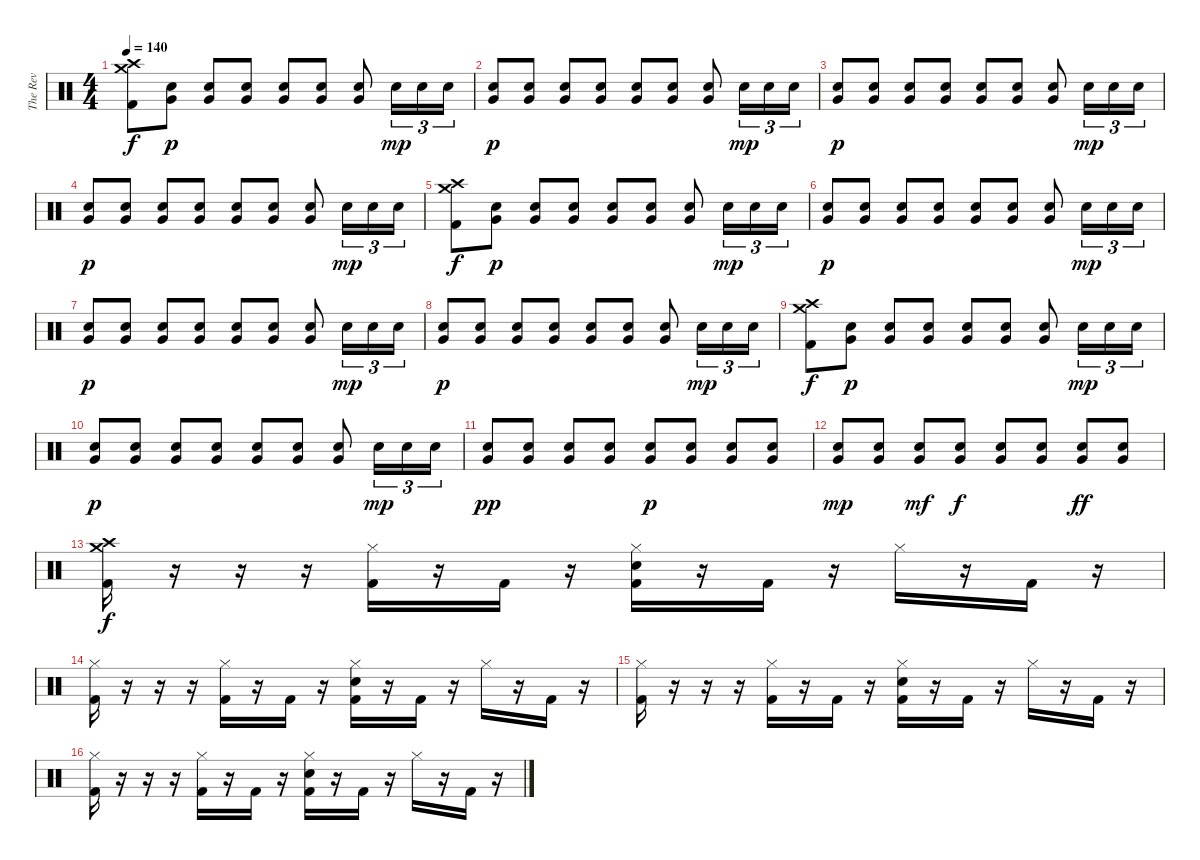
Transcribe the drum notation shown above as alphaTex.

\track ("The Rev" "The Rev") {instrument percussion}
\staff {score}
\articulation defaults
\ts (4 4)
\tempo 140
\clef neutral
\ks c
("Crash medium (hit)" "Crash high (hit)" "Kick (hit) 2").8{dy f} ("Very Low Tom (hit)" "Electric Snare (hit)").8{dy p} ("Very Low Tom (hit)" "Electric Snare (hit)").8 ("Very Low Tom (hit)" "Electric Snare (hit)").8 ("Very Low Tom (hit)" "Electric Snare (hit)").8 ("Very Low Tom (hit)" "Electric Snare (hit)").8 ("Very Low Tom (hit)" "Electric Snare (hit)").8 "Electric Snare (hit)".16{tu (3 2) dy mp} "Electric Snare (hit)".16{tu (3 2)} "Electric Snare (hit)".16{tu (3 2)} |
("Very Low Tom (hit)" "Electric Snare (hit)").8{dy p} ("Very Low Tom (hit)" "Electric Snare (hit)").8 ("Very Low Tom (hit)" "Electric Snare (hit)").8 ("Very Low Tom (hit)" "Electric Snare (hit)").8 ("Very Low Tom (hit)" "Electric Snare (hit)").8 ("Very Low Tom (hit)" "Electric Snare (hit)").8 ("Very Low Tom (hit)" "Electric Snare (hit)").8 "Electric Snare (hit)".16{tu (3 2) dy mp} "Electric Snare (hit)".16{tu (3 2)} "Electric Snare (hit)".16{tu (3 2)} |
("Very Low Tom (hit)" "Electric Snare (hit)").8{dy p} ("Very Low Tom (hit)" "Electric Snare (hit)").8 ("Very Low Tom (hit)" "Electric Snare (hit)").8 ("Very Low Tom (hit)" "Electric Snare (hit)").8 ("Very Low Tom (hit)" "Electric Snare (hit)").8 ("Very Low Tom (hit)" "Electric Snare (hit)").8 ("Very Low Tom (hit)" "Electric Snare (hit)").8 "Electric Snare (hit)".16{tu (3 2) dy mp} "Electric Snare (hit)".16{tu (3 2)} "Electric Snare (hit)".16{tu (3 2)} |
("Very Low Tom (hit)" "Electric Snare (hit)").8{dy p} ("Very Low Tom (hit)" "Electric Snare (hit)").8 ("Very Low Tom (hit)" "Electric Snare (hit)").8 ("Very Low Tom (hit)" "Electric Snare (hit)").8 ("Very Low Tom (hit)" "Electric Snare (hit)").8 ("Very Low Tom (hit)" "Electric Snare (hit)").8 ("Very Low Tom (hit)" "Electric Snare (hit)").8 "Electric Snare (hit)".16{tu (3 2) dy mp} "Electric Snare (hit)".16{tu (3 2)} "Electric Snare (hit)".16{tu (3 2)} |
("Crash medium (hit)" "Crash high (hit)" "Kick (hit) 2").8{dy f} ("Very Low Tom (hit)" "Electric Snare (hit)").8{dy p} ("Very Low Tom (hit)" "Electric Snare (hit)").8 ("Very Low Tom (hit)" "Electric Snare (hit)").8 ("Very Low Tom (hit)" "Electric Snare (hit)").8 ("Very Low Tom (hit)" "Electric Snare (hit)").8 ("Very Low Tom (hit)" "Electric Snare (hit)").8 "Electric Snare (hit)".16{tu (3 2) dy mp} "Electric Snare (hit)".16{tu (3 2)} "Electric Snare (hit)".16{tu (3 2)} |
("Very Low Tom (hit)" "Electric Snare (hit)").8{dy p} ("Very Low Tom (hit)" "Electric Snare (hit)").8 ("Very Low Tom (hit)" "Electric Snare (hit)").8 ("Very Low Tom (hit)" "Electric Snare (hit)").8 ("Very Low Tom (hit)" "Electric Snare (hit)").8 ("Very Low Tom (hit)" "Electric Snare (hit)").8 ("Very Low Tom (hit)" "Electric Snare (hit)").8 "Electric Snare (hit)".16{tu (3 2) dy mp} "Electric Snare (hit)".16{tu (3 2)} "Electric Snare (hit)".16{tu (3 2)} |
("Very Low Tom (hit)" "Electric Snare (hit)").8{dy p} ("Very Low Tom (hit)" "Electric Snare (hit)").8 ("Very Low Tom (hit)" "Electric Snare (hit)").8 ("Very Low Tom (hit)" "Electric Snare (hit)").8 ("Very Low Tom (hit)" "Electric Snare (hit)").8 ("Very Low Tom (hit)" "Electric Snare (hit)").8 ("Very Low Tom (hit)" "Electric Snare (hit)").8 "Electric Snare (hit)".16{tu (3 2) dy mp} "Electric Snare (hit)".16{tu (3 2)} "Electric Snare (hit)".16{tu (3 2)} |
("Very Low Tom (hit)" "Electric Snare (hit)").8{dy p} ("Very Low Tom (hit)" "Electric Snare (hit)").8 ("Very Low Tom (hit)" "Electric Snare (hit)").8 ("Very Low Tom (hit)" "Electric Snare (hit)").8 ("Very Low Tom (hit)" "Electric Snare (hit)").8 ("Very Low Tom (hit)" "Electric Snare (hit)").8 ("Very Low Tom (hit)" "Electric Snare (hit)").8 "Electric Snare (hit)".16{tu (3 2) dy mp} "Electric Snare (hit)".16{tu (3 2)} "Electric Snare (hit)".16{tu (3 2)} |
("Crash medium (hit)" "Crash high (hit)" "Kick (hit) 2").8{dy f} ("Very Low Tom (hit)" "Electric Snare (hit)").8{dy p} ("Very Low Tom (hit)" "Electric Snare (hit)").8 ("Very Low Tom (hit)" "Electric Snare (hit)").8 ("Very Low Tom (hit)" "Electric Snare (hit)").8 ("Very Low Tom (hit)" "Electric Snare (hit)").8 ("Very Low Tom (hit)" "Electric Snare (hit)").8 "Electric Snare (hit)".16{tu (3 2) dy mp} "Electric Snare (hit)".16{tu (3 2)} "Electric Snare (hit)".16{tu (3 2)} |
("Very Low Tom (hit)" "Electric Snare (hit)").8{dy p} ("Very Low Tom (hit)" "Electric Snare (hit)").8 ("Very Low Tom (hit)" "Electric Snare (hit)").8 ("Very Low Tom (hit)" "Electric Snare (hit)").8 ("Very Low Tom (hit)" "Electric Snare (hit)").8 ("Very Low Tom (hit)" "Electric Snare (hit)").8 ("Very Low Tom (hit)" "Electric Snare (hit)").8 "Electric Snare (hit)".16{tu (3 2) dy mp} "Electric Snare (hit)".16{tu (3 2)} "Electric Snare (hit)".16{tu (3 2)} |
("Very Low Tom (hit)" "Electric Snare (hit)").8{dy pp} ("Very Low Tom (hit)" "Electric Snare (hit)").8 ("Very Low Tom (hit)" "Electric Snare (hit)").8 ("Very Low Tom (hit)" "Electric Snare (hit)").8 ("Very Low Tom (hit)" "Electric Snare (hit)").8{dy p} ("Very Low Tom (hit)" "Electric Snare (hit)").8 ("Very Low Tom (hit)" "Electric Snare (hit)").8 ("Very Low Tom (hit)" "Electric Snare (hit)").8 |
("Very Low Tom (hit)" "Electric Snare (hit)").8{dy mp} ("Very Low Tom (hit)" "Electric Snare (hit)").8 ("Very Low Tom (hit)" "Electric Snare (hit)").8{dy mf} ("Very Low Tom (hit)" "Electric Snare (hit)").8{dy f} ("Very Low Tom (hit)" "Electric Snare (hit)").8 ("Very Low Tom (hit)" "Electric Snare (hit)").8 ("Very Low Tom (hit)" "Electric Snare (hit)").8{dy ff} ("Very Low Tom (hit)" "Electric Snare (hit)").8 |
("Crash medium (hit)" "Crash high (hit)" "Kick (hit) 2").16{dy f} r.16 r.16 r.16 ("Hi-Hat (closed)" "Kick (hit) 2").16 r.16 "Kick (hit) 2".16 r.16 ("Hi-Hat (closed)" "Electric Snare (hit)" "Kick (hit) 2").16 r.16 "Kick (hit) 2".16 r.16 "Hi-Hat (closed)".16 r.16 "Kick (hit) 2".16 r.16 |
("Hi-Hat (closed)" "Kick (hit) 2").16 r.16 r.16 r.16 ("Hi-Hat (closed)" "Kick (hit) 2").16 r.16 "Kick (hit) 2".16 r.16 ("Hi-Hat (closed)" "Electric Snare (hit)" "Kick (hit) 2").16 r.16 "Kick (hit) 2".16 r.16 "Hi-Hat (closed)".16 r.16 "Kick (hit) 2".16 r.16 |
("Hi-Hat (closed)" "Kick (hit) 2").16 r.16 r.16 r.16 ("Hi-Hat (closed)" "Kick (hit) 2").16 r.16 "Kick (hit) 2".16 r.16 ("Hi-Hat (closed)" "Electric Snare (hit)" "Kick (hit) 2").16 r.16 "Kick (hit) 2".16 r.16 "Hi-Hat (closed)".16 r.16 "Kick (hit) 2".16 r.16 |
("Hi-Hat (closed)" "Kick (hit) 2").16 r.16 r.16 r.16 ("Hi-Hat (closed)" "Kick (hit) 2").16 r.16 "Kick (hit) 2".16 r.16 ("Hi-Hat (closed)" "Electric Snare (hit)" "Kick (hit) 2").16 r.16 "Kick (hit) 2".16 r.16 "Hi-Hat (closed)".16 r.16 "Kick (hit) 2".16 r.16
